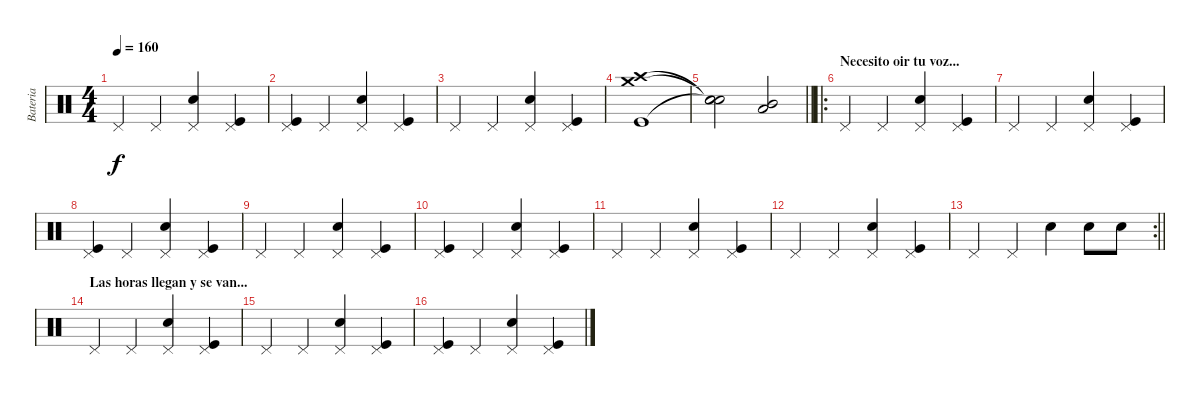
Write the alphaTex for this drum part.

\track ("Bateria" "Bateria") {instrument percussion}
\staff {score}
\articulation defaults
\ts (4 4)
\tempo 160
\clef neutral
\ks c "Pedal Hi-Hat (hit)".4{dy f} "Pedal Hi-Hat (hit)".4
("Snare (hit) 2" "Pedal Hi-Hat (hit)").4 ("Kick (hit)" "Pedal Hi-Hat (hit)").4 |
("Kick (hit)" "Pedal Hi-Hat (hit)").4 "Pedal Hi-Hat (hit)".4 ("Snare (hit) 2" "Pedal Hi-Hat (hit)").4 ("Kick (hit)" "Pedal Hi-Hat (hit)").4 |
"Pedal Hi-Hat (hit)".4 "Pedal Hi-Hat (hit)".4 ("Snare (hit) 2" "Pedal Hi-Hat (hit)").4 ("Kick (hit)" "Pedal Hi-Hat (hit)").4 |
("Crash medium (hit)" "Kick (hit)" "Crash high (hit)").1 |
\barLineRight lightlight
("Snare (hit)"{t} "Snare (hit)"{t} "Snare (hit)"{t}).2 ("Mid Tom (hit)" "Low Tom (hit)").2 |
\ro
\section ("" "Necesito oir tu voz...")
"Pedal Hi-Hat (hit)".4 "Pedal Hi-Hat (hit)".4 ("Snare (hit) 2" "Pedal Hi-Hat (hit)").4 ("Kick (hit)" "Pedal Hi-Hat (hit)").4 |
"Pedal Hi-Hat (hit)".4 "Pedal Hi-Hat (hit)".4 ("Snare (hit) 2" "Pedal Hi-Hat (hit)").4 ("Kick (hit)" "Pedal Hi-Hat (hit)").4 |
("Kick (hit)" "Pedal Hi-Hat (hit)").4 "Pedal Hi-Hat (hit)".4 ("Snare (hit) 2" "Pedal Hi-Hat (hit)").4 ("Kick (hit)" "Pedal Hi-Hat (hit)").4 |
"Pedal Hi-Hat (hit)".4 "Pedal Hi-Hat (hit)".4 ("Snare (hit) 2" "Pedal Hi-Hat (hit)").4 ("Kick (hit)" "Pedal Hi-Hat (hit)").4 |
("Kick (hit)" "Pedal Hi-Hat (hit)").4 "Pedal Hi-Hat (hit)".4 ("Snare (hit) 2" "Pedal Hi-Hat (hit)").4 ("Kick (hit)" "Pedal Hi-Hat (hit)").4 |
"Pedal Hi-Hat (hit)".4 "Pedal Hi-Hat (hit)".4 ("Snare (hit) 2" "Pedal Hi-Hat (hit)").4 ("Kick (hit)" "Pedal Hi-Hat (hit)").4 |
"Pedal Hi-Hat (hit)".4 "Pedal Hi-Hat (hit)".4 ("Snare (hit) 2" "Pedal Hi-Hat (hit)").4 ("Kick (hit)" "Pedal Hi-Hat (hit)").4 |
\rc 2
\barLineRight lightlight "Pedal Hi-Hat (hit)".4 "Pedal Hi-Hat (hit)".4 "Snare (hit) 2".4 "Snare (hit) 2".8 "Snare (hit) 2".8
|
\section ("" "Las horas llegan y se van...")
"Pedal Hi-Hat (hit)".4 "Pedal Hi-Hat (hit)".4 ("Snare (hit) 2" "Pedal Hi-Hat (hit)").4 ("Kick (hit)" "Pedal Hi-Hat (hit)").4 |
"Pedal Hi-Hat (hit)".4 "Pedal Hi-Hat (hit)".4 ("Snare (hit) 2" "Pedal Hi-Hat (hit)").4 ("Kick (hit)" "Pedal Hi-Hat (hit)").4 |
("Kick (hit)" "Pedal Hi-Hat (hit)").4 "Pedal Hi-Hat (hit)".4 ("Snare (hit) 2" "Pedal Hi-Hat (hit)").4 ("Kick (hit)" "Pedal Hi-Hat (hit)").4
